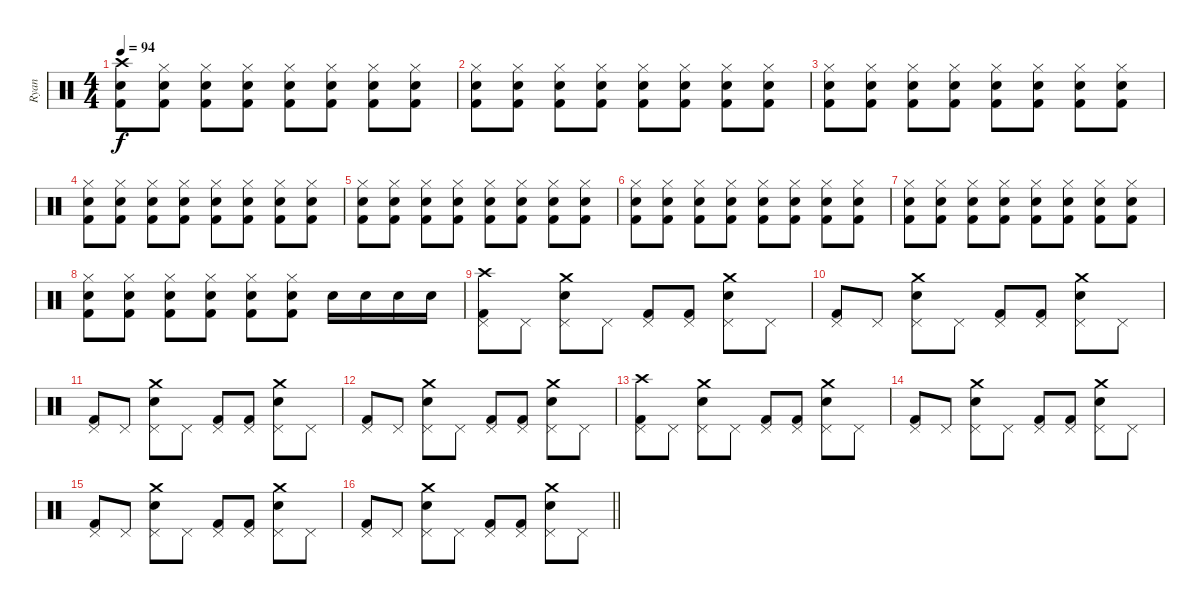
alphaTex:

\track ("Ryan" "Ryan") {instrument percussion}
\staff {score}
\articulation defaults
\ts (4 4)
\tempo 94
\clef neutral
\ks c
("Crash high (hit)" "Electric Snare (hit)" "Kick (hit) 2").8{dy f} ("Hi-Hat (closed)" "Electric Snare (hit)" "Kick (hit) 2").8 ("Hi-Hat (closed)" "Electric Snare (hit)" "Kick (hit) 2").8 ("Hi-Hat (closed)" "Electric Snare (hit)" "Kick (hit) 2").8 ("Hi-Hat (closed)" "Electric Snare (hit)" "Kick (hit) 2").8 ("Hi-Hat (closed)" "Electric Snare (hit)" "Kick (hit) 2").8 ("Hi-Hat (closed)" "Electric Snare (hit)" "Kick (hit) 2").8 ("Hi-Hat (closed)" "Electric Snare (hit)" "Kick (hit) 2").8 |
("Hi-Hat (closed)" "Electric Snare (hit)" "Kick (hit) 2").8 ("Hi-Hat (closed)" "Electric Snare (hit)" "Kick (hit) 2").8 ("Hi-Hat (closed)" "Electric Snare (hit)" "Kick (hit) 2").8 ("Hi-Hat (closed)" "Electric Snare (hit)" "Kick (hit) 2").8 ("Hi-Hat (closed)" "Electric Snare (hit)" "Kick (hit) 2").8 ("Hi-Hat (closed)" "Electric Snare (hit)" "Kick (hit) 2").8 ("Hi-Hat (closed)" "Electric Snare (hit)" "Kick (hit) 2").8 ("Hi-Hat (closed)" "Electric Snare (hit)" "Kick (hit) 2").8 |
("Hi-Hat (closed)" "Electric Snare (hit)" "Kick (hit) 2").8 ("Hi-Hat (closed)" "Electric Snare (hit)" "Kick (hit) 2").8 ("Hi-Hat (closed)" "Electric Snare (hit)" "Kick (hit) 2").8 ("Hi-Hat (closed)" "Electric Snare (hit)" "Kick (hit) 2").8 ("Hi-Hat (closed)" "Electric Snare (hit)" "Kick (hit) 2").8 ("Hi-Hat (closed)" "Electric Snare (hit)" "Kick (hit) 2").8 ("Hi-Hat (closed)" "Electric Snare (hit)" "Kick (hit) 2").8 ("Hi-Hat (closed)" "Electric Snare (hit)" "Kick (hit) 2").8 |
("Hi-Hat (closed)" "Electric Snare (hit)" "Kick (hit) 2").8 ("Hi-Hat (closed)" "Electric Snare (hit)" "Kick (hit) 2").8 ("Hi-Hat (closed)" "Electric Snare (hit)" "Kick (hit) 2").8 ("Hi-Hat (closed)" "Electric Snare (hit)" "Kick (hit) 2").8 ("Hi-Hat (closed)" "Electric Snare (hit)" "Kick (hit) 2").8 ("Hi-Hat (closed)" "Electric Snare (hit)" "Kick (hit) 2").8 ("Hi-Hat (closed)" "Electric Snare (hit)" "Kick (hit) 2").8 ("Hi-Hat (closed)" "Electric Snare (hit)" "Kick (hit) 2").8 |
("Hi-Hat (closed)" "Electric Snare (hit)" "Kick (hit) 2").8 ("Hi-Hat (closed)" "Electric Snare (hit)" "Kick (hit) 2").8 ("Hi-Hat (closed)" "Electric Snare (hit)" "Kick (hit) 2").8 ("Hi-Hat (closed)" "Electric Snare (hit)" "Kick (hit) 2").8 ("Hi-Hat (closed)" "Electric Snare (hit)" "Kick (hit) 2").8 ("Hi-Hat (closed)" "Electric Snare (hit)" "Kick (hit) 2").8 ("Hi-Hat (closed)" "Electric Snare (hit)" "Kick (hit) 2").8 ("Hi-Hat (closed)" "Electric Snare (hit)" "Kick (hit) 2").8 |
("Hi-Hat (closed)" "Electric Snare (hit)" "Kick (hit) 2").8 ("Hi-Hat (closed)" "Electric Snare (hit)" "Kick (hit) 2").8 ("Hi-Hat (closed)" "Electric Snare (hit)" "Kick (hit) 2").8 ("Hi-Hat (closed)" "Electric Snare (hit)" "Kick (hit) 2").8 ("Hi-Hat (closed)" "Electric Snare (hit)" "Kick (hit) 2").8 ("Hi-Hat (closed)" "Electric Snare (hit)" "Kick (hit) 2").8 ("Hi-Hat (closed)" "Electric Snare (hit)" "Kick (hit) 2").8 ("Hi-Hat (closed)" "Electric Snare (hit)" "Kick (hit) 2").8 |
("Hi-Hat (closed)" "Electric Snare (hit)" "Kick (hit) 2").8 ("Hi-Hat (closed)" "Electric Snare (hit)" "Kick (hit) 2").8 ("Hi-Hat (closed)" "Electric Snare (hit)" "Kick (hit) 2").8 ("Hi-Hat (closed)" "Electric Snare (hit)" "Kick (hit) 2").8 ("Hi-Hat (closed)" "Electric Snare (hit)" "Kick (hit) 2").8 ("Hi-Hat (closed)" "Electric Snare (hit)" "Kick (hit) 2").8 ("Hi-Hat (closed)" "Electric Snare (hit)" "Kick (hit) 2").8 ("Hi-Hat (closed)" "Electric Snare (hit)" "Kick (hit) 2").8 |
("Hi-Hat (closed)" "Electric Snare (hit)" "Kick (hit) 2").8 ("Hi-Hat (closed)" "Electric Snare (hit)" "Kick (hit) 2").8 ("Hi-Hat (closed)" "Electric Snare (hit)" "Kick (hit) 2").8 ("Hi-Hat (closed)" "Electric Snare (hit)" "Kick (hit) 2").8 ("Hi-Hat (closed)" "Electric Snare (hit)" "Kick (hit) 2").8 ("Hi-Hat (closed)" "Electric Snare (hit)" "Kick (hit) 2").8 "Electric Snare (hit)".16 "Electric Snare (hit)".16 "Electric Snare (hit)".16 "Electric Snare (hit)".16 |
("Crash high (hit)" "Pedal Hi-Hat (hit)" "Kick (hit) 2").8 "Pedal Hi-Hat (hit)".8 ("Crash medium (hit)" "Pedal Hi-Hat (hit)" "Electric Snare (hit)").8 "Pedal Hi-Hat (hit)".8 ("Pedal Hi-Hat (hit)" "Kick (hit) 2").8 ("Pedal Hi-Hat (hit)" "Kick (hit) 2").8 ("Crash medium (hit)" "Pedal Hi-Hat (hit)" "Electric Snare (hit)").8 "Pedal Hi-Hat (hit)".8 |
("Pedal Hi-Hat (hit)" "Kick (hit) 2").8 "Pedal Hi-Hat (hit)".8 ("Crash medium (hit)" "Pedal Hi-Hat (hit)" "Electric Snare (hit)").8 "Pedal Hi-Hat (hit)".8 ("Pedal Hi-Hat (hit)" "Kick (hit) 2").8 ("Pedal Hi-Hat (hit)" "Kick (hit) 2").8 ("Crash medium (hit)" "Pedal Hi-Hat (hit)" "Electric Snare (hit)").8 "Pedal Hi-Hat (hit)".8 |
("Pedal Hi-Hat (hit)" "Kick (hit) 2").8 "Pedal Hi-Hat (hit)".8 ("Crash medium (hit)" "Pedal Hi-Hat (hit)" "Electric Snare (hit)").8 "Pedal Hi-Hat (hit)".8 ("Pedal Hi-Hat (hit)" "Kick (hit) 2").8 ("Pedal Hi-Hat (hit)" "Kick (hit) 2").8 ("Crash medium (hit)" "Pedal Hi-Hat (hit)" "Electric Snare (hit)").8 "Pedal Hi-Hat (hit)".8 |
("Pedal Hi-Hat (hit)" "Kick (hit) 2").8 "Pedal Hi-Hat (hit)".8 ("Crash medium (hit)" "Pedal Hi-Hat (hit)" "Electric Snare (hit)").8 "Pedal Hi-Hat (hit)".8 ("Pedal Hi-Hat (hit)" "Kick (hit) 2").8 ("Pedal Hi-Hat (hit)" "Kick (hit) 2").8 ("Crash medium (hit)" "Pedal Hi-Hat (hit)" "Electric Snare (hit)").8 "Pedal Hi-Hat (hit)".8 |
("Crash high (hit)" "Pedal Hi-Hat (hit)" "Kick (hit) 2").8 "Pedal Hi-Hat (hit)".8 ("Crash medium (hit)" "Pedal Hi-Hat (hit)" "Electric Snare (hit)").8 "Pedal Hi-Hat (hit)".8 ("Pedal Hi-Hat (hit)" "Kick (hit) 2").8 ("Pedal Hi-Hat (hit)" "Kick (hit) 2").8 ("Crash medium (hit)" "Pedal Hi-Hat (hit)" "Electric Snare (hit)").8 "Pedal Hi-Hat (hit)".8 |
("Pedal Hi-Hat (hit)" "Kick (hit) 2").8 "Pedal Hi-Hat (hit)".8 ("Crash medium (hit)" "Pedal Hi-Hat (hit)" "Electric Snare (hit)").8 "Pedal Hi-Hat (hit)".8 ("Pedal Hi-Hat (hit)" "Kick (hit) 2").8 ("Pedal Hi-Hat (hit)" "Kick (hit) 2").8 ("Crash medium (hit)" "Pedal Hi-Hat (hit)" "Electric Snare (hit)").8 "Pedal Hi-Hat (hit)".8 |
("Pedal Hi-Hat (hit)" "Kick (hit) 2").8 "Pedal Hi-Hat (hit)".8 ("Crash medium (hit)" "Pedal Hi-Hat (hit)" "Electric Snare (hit)").8 "Pedal Hi-Hat (hit)".8 ("Pedal Hi-Hat (hit)" "Kick (hit) 2").8 ("Pedal Hi-Hat (hit)" "Kick (hit) 2").8 ("Crash medium (hit)" "Pedal Hi-Hat (hit)" "Electric Snare (hit)").8 "Pedal Hi-Hat (hit)".8 |
\barLineRight lightlight
("Pedal Hi-Hat (hit)" "Kick (hit) 2").8 "Pedal Hi-Hat (hit)".8 ("Crash medium (hit)" "Pedal Hi-Hat (hit)" "Electric Snare (hit)").8 "Pedal Hi-Hat (hit)".8 ("Pedal Hi-Hat (hit)" "Kick (hit) 2").8 ("Pedal Hi-Hat (hit)" "Kick (hit) 2").8 ("Crash medium (hit)" "Pedal Hi-Hat (hit)" "Electric Snare (hit)").8 "Pedal Hi-Hat (hit)".8
